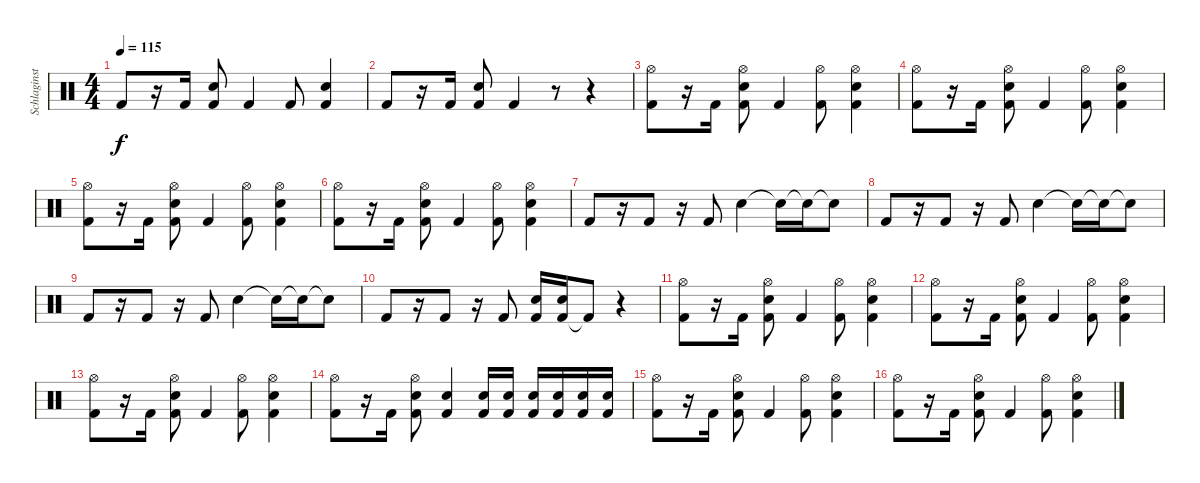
\track ("Schlaginstrumente - Auswahl" "Schlaginst") {instrument percussion}
\staff {score}
\articulation defaults
\ts (4 4)
\tempo 115
\clef neutral
\ks c "Kick (hit) 2".8{dy f}
r.16 "Kick (hit) 2".16 ("Kick (hit) 2" "Snare (hit) 2").8 "Kick (hit) 2".4 "Kick (hit) 2".8 ("Kick (hit) 2" "Snare (hit) 2").4 |
"Kick (hit) 2".8 r.16 "Kick (hit) 2".16 ("Kick (hit) 2" "Snare (hit) 2").8 "Kick (hit) 2".4 r.8 r.4 |
("Kick (hit) 2" "Hi-Hat (open)").8 r.16 "Kick (hit) 2".16 ("Kick (hit) 2" "Snare (hit) 2" "Hi-Hat (open)").8 "Kick (hit) 2".4 ("Kick (hit) 2" "Hi-Hat (open)").8 ("Kick (hit) 2" "Snare (hit) 2" "Hi-Hat (open)").4 |
("Kick (hit) 2" "Hi-Hat (open)").8 r.16 "Kick (hit) 2".16 ("Kick (hit) 2" "Snare (hit) 2" "Hi-Hat (open)").8 "Kick (hit) 2".4 ("Kick (hit) 2" "Hi-Hat (open)").8 ("Kick (hit) 2" "Snare (hit) 2" "Hi-Hat (open)").4 |
("Kick (hit) 2" "Hi-Hat (open)").8 r.16 "Kick (hit) 2".16 ("Kick (hit) 2" "Snare (hit) 2" "Hi-Hat (open)").8 "Kick (hit) 2".4 ("Kick (hit) 2" "Hi-Hat (open)").8 ("Kick (hit) 2" "Snare (hit) 2" "Hi-Hat (open)").4 |
("Kick (hit) 2" "Hi-Hat (open)").8 r.16 "Kick (hit) 2".16 ("Kick (hit) 2" "Snare (hit) 2" "Hi-Hat (open)").8 "Kick (hit) 2".4 ("Kick (hit) 2" "Hi-Hat (open)").8 ("Kick (hit) 2" "Snare (hit) 2" "Hi-Hat (open)").4 |
"Kick (hit) 2".8 r.16 "Kick (hit) 2".8 r.16 "Kick (hit) 2".8 "Snare (hit) 2".4 "Snare (hit)"{t}.16 "Snare (hit)"{t}.16 "Snare (hit)"{t}.8 |
"Kick (hit) 2".8 r.16 "Kick (hit) 2".8 r.16 "Kick (hit) 2".8 "Snare (hit) 2".4 "Snare (hit)"{t}.16 "Snare (hit)"{t}.16 "Snare (hit)"{t}.8 |
"Kick (hit) 2".8 r.16 "Kick (hit) 2".8 r.16 "Kick (hit) 2".8 "Snare (hit) 2".4 "Snare (hit)"{t}.16 "Snare (hit)"{t}.16 "Snare (hit)"{t}.8 |
"Kick (hit) 2".8 r.16 "Kick (hit) 2".8 r.16 "Kick (hit) 2".8 ("Kick (hit) 2" "Snare (hit) 2").16 ("Kick (hit) 2" "Snare (hit) 2").16 "Kick (hit) 2"{t}.8 r.4 |
("Kick (hit) 2" "Hi-Hat (open)").8 r.16 "Kick (hit) 2".16 ("Kick (hit) 2" "Snare (hit) 2" "Hi-Hat (open)").8 "Kick (hit) 2".4 ("Kick (hit) 2" "Hi-Hat (open)").8 ("Kick (hit) 2" "Snare (hit) 2" "Hi-Hat (open)").4 |
("Kick (hit) 2" "Hi-Hat (open)").8 r.16 "Kick (hit) 2".16 ("Kick (hit) 2" "Snare (hit) 2" "Hi-Hat (open)").8 "Kick (hit) 2".4 ("Kick (hit) 2" "Hi-Hat (open)").8 ("Kick (hit) 2" "Snare (hit) 2" "Hi-Hat (open)").4 |
("Kick (hit) 2" "Hi-Hat (open)").8 r.16 "Kick (hit) 2".16 ("Kick (hit) 2" "Snare (hit) 2" "Hi-Hat (open)").8 "Kick (hit) 2".4 ("Kick (hit) 2" "Hi-Hat (open)").8 ("Kick (hit) 2" "Snare (hit) 2" "Hi-Hat (open)").4 |
("Kick (hit) 2" "Hi-Hat (open)").8 r.16 "Kick (hit) 2".16 ("Kick (hit) 2" "Snare (hit) 2" "Hi-Hat (open)").8 ("Kick (hit) 2" "Snare (hit) 2").4 ("Kick (hit) 2" "Snare (hit) 2").16 ("Kick (hit) 2" "Snare (hit) 2").16 ("Kick (hit) 2" "Snare (hit) 2").16 ("Kick (hit) 2" "Snare (hit) 2").16 ("Kick (hit) 2" "Snare (hit) 2").16 ("Kick (hit) 2" "Snare (hit) 2").16 |
("Kick (hit) 2" "Hi-Hat (open)").8 r.16 "Kick (hit) 2".16 ("Kick (hit) 2" "Snare (hit) 2" "Hi-Hat (open)").8 "Kick (hit) 2".4 ("Kick (hit) 2" "Hi-Hat (open)").8 ("Kick (hit) 2" "Snare (hit) 2" "Hi-Hat (open)").4 |
("Kick (hit) 2" "Hi-Hat (open)").8 r.16 "Kick (hit) 2".16 ("Kick (hit) 2" "Snare (hit) 2" "Hi-Hat (open)").8 "Kick (hit) 2".4 ("Kick (hit) 2" "Hi-Hat (open)").8 ("Kick (hit) 2" "Snare (hit) 2" "Hi-Hat (open)").4
